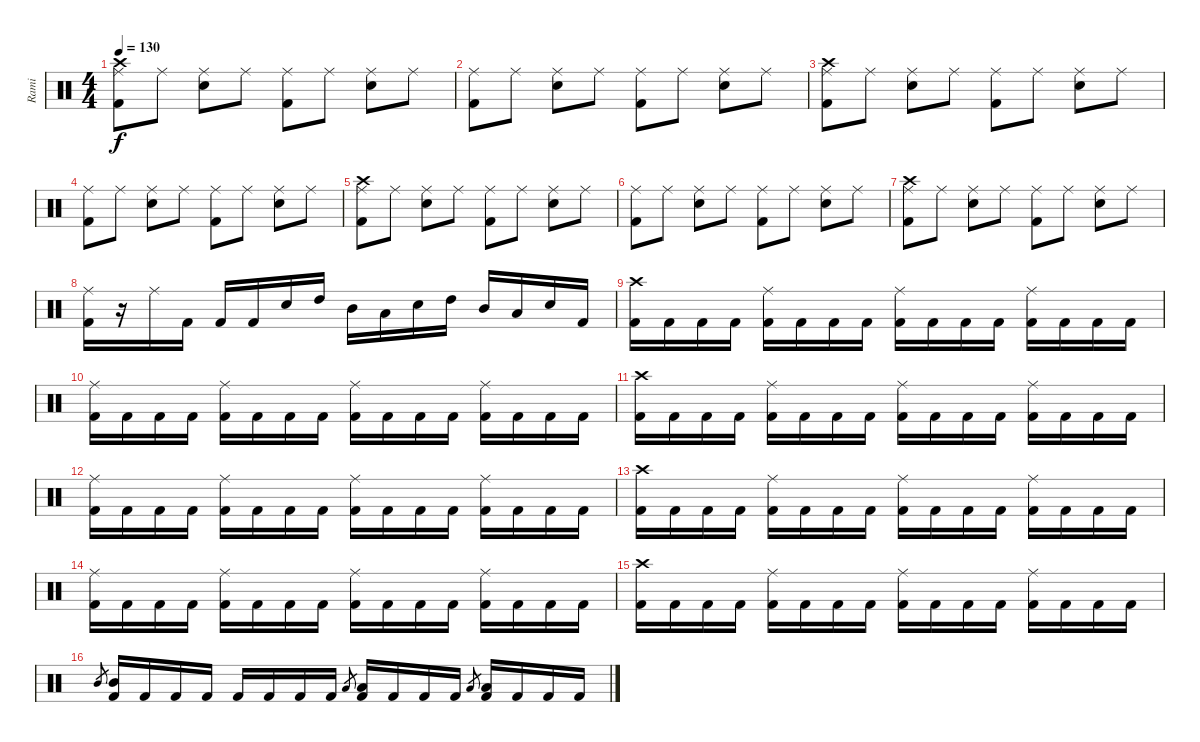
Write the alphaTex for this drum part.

\track ("Rami" "Rami") {instrument percussion}
\staff {score}
\articulation defaults
\ts (4 4)
\tempo 130
\clef neutral
\ks c
("Crash high (hit)" "Ride (middle)" "Kick (hit) 2").8{dy f} "Ride (middle)".8 ("Ride (middle)" "Electric Snare (hit)").8 "Ride (middle)".8 ("Ride (middle)" "Kick (hit) 2").8 "Ride (middle)".8 ("Ride (middle)" "Electric Snare (hit)").8 "Ride (middle)".8 |
("Ride (middle)" "Kick (hit) 2").8 "Ride (middle)".8 ("Ride (middle)" "Electric Snare (hit)").8 "Ride (middle)".8 ("Ride (middle)" "Kick (hit) 2").8 "Ride (middle)".8 ("Ride (middle)" "Electric Snare (hit)").8 "Ride (middle)".8 |
("Crash high (hit)" "Ride (middle)" "Kick (hit) 2").8 "Ride (middle)".8 ("Ride (middle)" "Electric Snare (hit)").8 "Ride (middle)".8 ("Ride (middle)" "Kick (hit) 2").8 "Ride (middle)".8 ("Ride (middle)" "Electric Snare (hit)").8 "Ride (middle)".8 |
("Ride (middle)" "Kick (hit) 2").8 "Ride (middle)".8 ("Ride (middle)" "Electric Snare (hit)").8 "Ride (middle)".8 ("Ride (middle)" "Kick (hit) 2").8 "Ride (middle)".8 ("Ride (middle)" "Electric Snare (hit)").8 "Ride (middle)".8 |
("Crash high (hit)" "Ride (middle)" "Kick (hit) 2").8 "Ride (middle)".8 ("Ride (middle)" "Electric Snare (hit)").8 "Ride (middle)".8 ("Ride (middle)" "Kick (hit) 2").8 "Ride (middle)".8 ("Ride (middle)" "Electric Snare (hit)").8 "Ride (middle)".8 |
("Ride (middle)" "Kick (hit) 2").8 "Ride (middle)".8 ("Ride (middle)" "Electric Snare (hit)").8 "Ride (middle)".8 ("Ride (middle)" "Kick (hit) 2").8 "Ride (middle)".8 ("Ride (middle)" "Electric Snare (hit)").8 "Ride (middle)".8 |
("Crash high (hit)" "Ride (middle)" "Kick (hit) 2").8 "Ride (middle)".8 ("Ride (middle)" "Electric Snare (hit)").8 "Ride (middle)".8 ("Ride (middle)" "Kick (hit) 2").8 "Ride (middle)".8 ("Ride (middle)" "Electric Snare (hit)").8 "Ride (middle)".8 |
("Ride (middle)" "Kick (hit) 2").16 r.16 "Ride (middle)".16 "Kick (hit) 2".16 "Kick (hit) 2".16 "Kick (hit) 2".16 "Electric Snare (hit)".16 "High Tom (hit)".16 "Mid Tom (hit)".16 "Low Tom (hit)".16 "Electric Snare (hit)".16 "High Tom (hit)".16 "Mid Tom (hit)".16 "Low Tom (hit)".16 "Electric Snare (hit)".16 "Kick (hit) 2".16 |
("Crash high (hit)" "Kick (hit) 2").16 "Kick (hit) 2".16 "Kick (hit) 2".16 "Kick (hit) 2".16 ("Ride (middle)" "Kick (hit) 2").16 "Kick (hit) 2".16 "Kick (hit) 2".16 "Kick (hit) 2".16 ("Ride (middle)" "Kick (hit) 2").16 "Kick (hit) 2".16 "Kick (hit) 2".16 "Kick (hit) 2".16 ("Ride (middle)" "Kick (hit) 2").16 "Kick (hit) 2".16 "Kick (hit) 2".16 "Kick (hit) 2".16 |
("Ride (middle)" "Kick (hit) 2").16 "Kick (hit) 2".16 "Kick (hit) 2".16 "Kick (hit) 2".16 ("Ride (middle)" "Kick (hit) 2").16 "Kick (hit) 2".16 "Kick (hit) 2".16 "Kick (hit) 2".16 ("Ride (middle)" "Kick (hit) 2").16 "Kick (hit) 2".16 "Kick (hit) 2".16 "Kick (hit) 2".16 ("Ride (middle)" "Kick (hit) 2").16 "Kick (hit) 2".16 "Kick (hit) 2".16 "Kick (hit) 2".16 |
("Crash high (hit)" "Kick (hit) 2").16 "Kick (hit) 2".16 "Kick (hit) 2".16 "Kick (hit) 2".16 ("Ride (middle)" "Kick (hit) 2").16 "Kick (hit) 2".16 "Kick (hit) 2".16 "Kick (hit) 2".16 ("Ride (middle)" "Kick (hit) 2").16 "Kick (hit) 2".16 "Kick (hit) 2".16 "Kick (hit) 2".16 ("Ride (middle)" "Kick (hit) 2").16 "Kick (hit) 2".16 "Kick (hit) 2".16 "Kick (hit) 2".16 |
("Ride (middle)" "Kick (hit) 2").16 "Kick (hit) 2".16 "Kick (hit) 2".16 "Kick (hit) 2".16 ("Ride (middle)" "Kick (hit) 2").16 "Kick (hit) 2".16 "Kick (hit) 2".16 "Kick (hit) 2".16 ("Ride (middle)" "Kick (hit) 2").16 "Kick (hit) 2".16 "Kick (hit) 2".16 "Kick (hit) 2".16 ("Ride (middle)" "Kick (hit) 2").16 "Kick (hit) 2".16 "Kick (hit) 2".16 "Kick (hit) 2".16 |
("Crash high (hit)" "Kick (hit) 2").16 "Kick (hit) 2".16 "Kick (hit) 2".16 "Kick (hit) 2".16 ("Ride (middle)" "Kick (hit) 2").16 "Kick (hit) 2".16 "Kick (hit) 2".16 "Kick (hit) 2".16 ("Ride (middle)" "Kick (hit) 2").16 "Kick (hit) 2".16 "Kick (hit) 2".16 "Kick (hit) 2".16 ("Ride (middle)" "Kick (hit) 2").16 "Kick (hit) 2".16 "Kick (hit) 2".16 "Kick (hit) 2".16 |
("Ride (middle)" "Kick (hit) 2").16 "Kick (hit) 2".16 "Kick (hit) 2".16 "Kick (hit) 2".16 ("Ride (middle)" "Kick (hit) 2").16 "Kick (hit) 2".16 "Kick (hit) 2".16 "Kick (hit) 2".16 ("Ride (middle)" "Kick (hit) 2").16 "Kick (hit) 2".16 "Kick (hit) 2".16 "Kick (hit) 2".16 ("Ride (middle)" "Kick (hit) 2").16 "Kick (hit) 2".16 "Kick (hit) 2".16 "Kick (hit) 2".16 |
("Crash high (hit)" "Kick (hit) 2").16 "Kick (hit) 2".16 "Kick (hit) 2".16 "Kick (hit) 2".16 ("Ride (middle)" "Kick (hit) 2").16 "Kick (hit) 2".16 "Kick (hit) 2".16 "Kick (hit) 2".16 ("Ride (middle)" "Kick (hit) 2").16 "Kick (hit) 2".16 "Kick (hit) 2".16 "Kick (hit) 2".16 ("Ride (middle)" "Kick (hit) 2").16 "Kick (hit) 2".16 "Kick (hit) 2".16 "Kick (hit) 2".16 |
"Mid Tom (hit)".8{gr} ("Mid Tom (hit)" "Kick (hit) 2").16 "Kick (hit) 2".16 "Kick (hit) 2".16 "Kick (hit) 2".16 "Kick (hit) 2".16 "Kick (hit) 2".16 "Kick (hit) 2".16 "Kick (hit) 2".16 "Low Tom (hit)".8{gr} ("Low Tom (hit)" "Kick (hit) 2").16 "Kick (hit) 2".16 "Kick (hit) 2".16 "Kick (hit) 2".16 "Low Tom (hit)".8{gr} ("Low Tom (hit)" "Kick (hit) 2").16 "Kick (hit) 2".16 "Kick (hit) 2".16 "Kick (hit) 2".16
